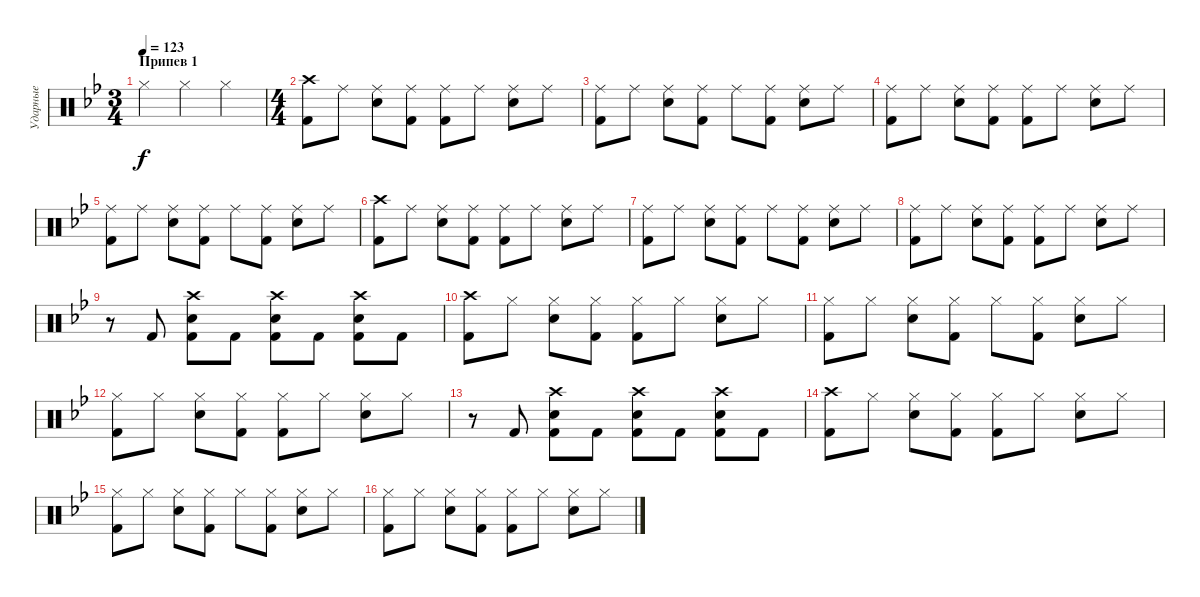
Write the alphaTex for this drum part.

\track ("Ударные" "Ударные") {instrument percussion}
\staff {score}
\articulation defaults
\ts (3 4)
\section ("" "Припев 1")
\tempo 123
\clef neutral
\ks gminor "Hi-Hat (closed)".4{dy f} "Hi-Hat (closed)".4 "Hi-Hat (closed)".4
|
\ts (4 4)
("Crash high (hit)" "Kick (hit) 2").8 "Ride (middle)".8 ("Ride (middle)" "Snare (hit) 2").8 ("Ride (middle)" "Kick (hit) 2").8 ("Ride (middle)" "Kick (hit) 2").8 "Ride (middle)".8 ("Ride (middle)" "Snare (hit) 2").8 "Ride (middle)".8 |
("Ride (middle)" "Kick (hit) 2").8 "Ride (middle)".8 ("Ride (middle)" "Snare (hit) 2").8 ("Ride (middle)" "Kick (hit) 2").8 "Ride (middle)".8 ("Ride (middle)" "Kick (hit) 2").8 ("Ride (middle)" "Snare (hit) 2").8 "Ride (middle)".8 |
("Ride (middle)" "Kick (hit) 2").8 "Ride (middle)".8 ("Ride (middle)" "Snare (hit) 2").8 ("Ride (middle)" "Kick (hit) 2").8 ("Ride (middle)" "Kick (hit) 2").8 "Ride (middle)".8 ("Ride (middle)" "Snare (hit) 2").8 "Ride (middle)".8 |
("Ride (middle)" "Kick (hit) 2").8 "Ride (middle)".8 ("Ride (middle)" "Snare (hit) 2").8 ("Ride (middle)" "Kick (hit) 2").8 "Ride (middle)".8 ("Ride (middle)" "Kick (hit) 2").8 ("Ride (middle)" "Snare (hit) 2").8 "Ride (middle)".8 |
("Crash high (hit)" "Kick (hit) 2").8 "Ride (middle)".8 ("Ride (middle)" "Snare (hit) 2").8 ("Ride (middle)" "Kick (hit) 2").8 ("Ride (middle)" "Kick (hit) 2").8 "Ride (middle)".8 ("Ride (middle)" "Snare (hit) 2").8 "Ride (middle)".8 |
("Ride (middle)" "Kick (hit) 2").8 "Ride (middle)".8 ("Ride (middle)" "Snare (hit) 2").8 ("Ride (middle)" "Kick (hit) 2").8 "Ride (middle)".8 ("Ride (middle)" "Kick (hit) 2").8 ("Ride (middle)" "Snare (hit) 2").8 "Ride (middle)".8 |
("Ride (middle)" "Kick (hit) 2").8 "Ride (middle)".8 ("Ride (middle)" "Snare (hit) 2").8 ("Ride (middle)" "Kick (hit) 2").8 ("Ride (middle)" "Kick (hit) 2").8 "Ride (middle)".8 ("Ride (middle)" "Snare (hit) 2").8 "Ride (middle)".8 |
r.8 "Kick (hit) 2".8 ("Kick (hit) 2" "Crash high (hit)" "Snare (hit) 2").8 "Kick (hit) 2".8 ("Kick (hit) 2" "Crash high (hit)" "Snare (hit) 2").8 "Kick (hit) 2".8 ("Kick (hit) 2" "Crash high (hit)" "Snare (hit) 2").8 "Kick (hit) 2".8 |
("Crash high (hit)" "Kick (hit) 2").8 "Hi-Hat (closed)".8 ("Hi-Hat (closed)" "Snare (hit) 2").8 ("Hi-Hat (closed)" "Kick (hit) 2").8 ("Hi-Hat (closed)" "Kick (hit) 2").8 "Hi-Hat (closed)".8 ("Hi-Hat (closed)" "Snare (hit) 2").8 "Hi-Hat (closed)".8 |
("Hi-Hat (closed)" "Kick (hit) 2").8 "Hi-Hat (closed)".8 ("Hi-Hat (closed)" "Snare (hit) 2").8 ("Hi-Hat (closed)" "Kick (hit) 2").8 "Hi-Hat (closed)".8 ("Hi-Hat (closed)" "Kick (hit) 2").8 ("Hi-Hat (closed)" "Snare (hit) 2").8 "Hi-Hat (closed)".8 |
("Hi-Hat (closed)" "Kick (hit) 2").8 "Hi-Hat (closed)".8 ("Hi-Hat (closed)" "Snare (hit) 2").8 ("Hi-Hat (closed)" "Kick (hit) 2").8 ("Hi-Hat (closed)" "Kick (hit) 2").8 "Hi-Hat (closed)".8 ("Hi-Hat (closed)" "Snare (hit) 2").8 "Hi-Hat (closed)".8 |
r.8 "Kick (hit) 2".8 ("Kick (hit) 2" "Crash high (hit)" "Snare (hit) 2").8 "Kick (hit) 2".8 ("Kick (hit) 2" "Crash high (hit)" "Snare (hit) 2").8 "Kick (hit) 2".8 ("Kick (hit) 2" "Crash high (hit)" "Snare (hit) 2").8 "Kick (hit) 2".8 |
("Crash high (hit)" "Kick (hit) 2").8 "Hi-Hat (closed)".8 ("Hi-Hat (closed)" "Snare (hit) 2").8 ("Hi-Hat (closed)" "Kick (hit) 2").8 ("Hi-Hat (closed)" "Kick (hit) 2").8 "Hi-Hat (closed)".8 ("Hi-Hat (closed)" "Snare (hit) 2").8 "Hi-Hat (closed)".8 |
("Hi-Hat (closed)" "Kick (hit) 2").8 "Hi-Hat (closed)".8 ("Hi-Hat (closed)" "Snare (hit) 2").8 ("Hi-Hat (closed)" "Kick (hit) 2").8 "Hi-Hat (closed)".8 ("Hi-Hat (closed)" "Kick (hit) 2").8 ("Hi-Hat (closed)" "Snare (hit) 2").8 "Hi-Hat (closed)".8 |
("Hi-Hat (closed)" "Kick (hit) 2").8 "Hi-Hat (closed)".8 ("Hi-Hat (closed)" "Snare (hit) 2").8 ("Hi-Hat (closed)" "Kick (hit) 2").8 ("Hi-Hat (closed)" "Kick (hit) 2").8 "Hi-Hat (closed)".8 ("Hi-Hat (closed)" "Snare (hit) 2").8 "Hi-Hat (closed)".8
